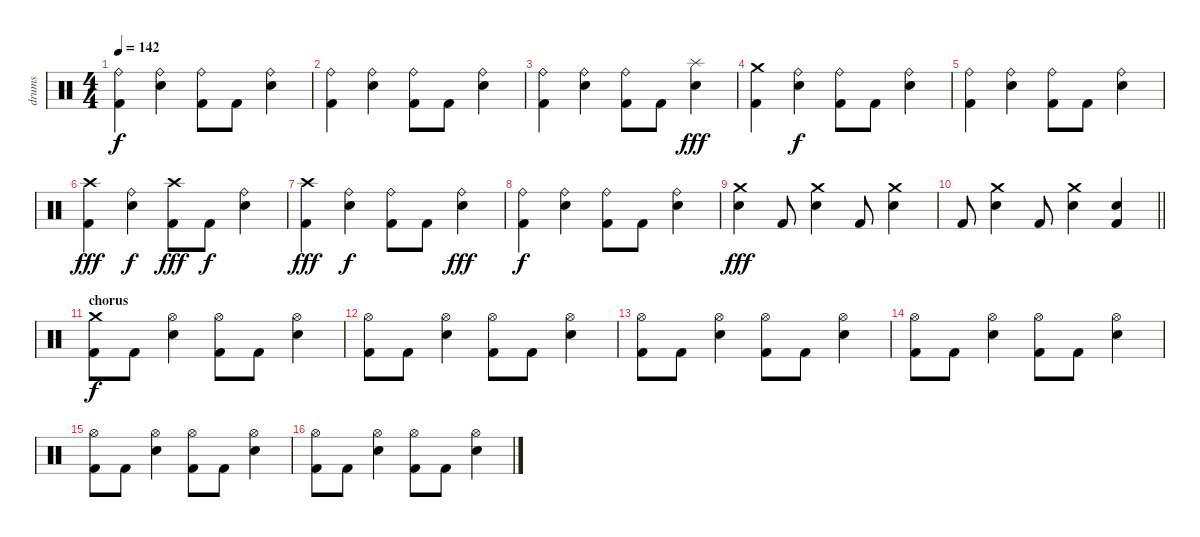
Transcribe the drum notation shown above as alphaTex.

\track ("drums" "drums") {instrument percussion}
\staff {score}
\articulation defaults
\ts (4 4)
\tempo 142
\clef neutral
\ks c
("Ride (bell)" "Kick (hit) 2").4{dy f} ("Ride (bell)" "Electric Snare (hit)").4 ("Ride (bell)" "Kick (hit) 2").8 "Kick (hit) 2".8 ("Ride (bell)" "Electric Snare (hit)").4 |
("Ride (bell)" "Kick (hit) 2").4 ("Ride (bell)" "Electric Snare (hit)").4 ("Ride (bell)" "Kick (hit) 2").8 "Kick (hit) 2".8 ("Ride (bell)" "Electric Snare (hit)").4 |
("Ride (bell)" "Kick (hit) 2").4 ("Ride (bell)" "Electric Snare (hit)").4 ("Ride (bell)" "Kick (hit) 2").8 "Kick (hit) 2".8 ("Splash (hit)" "Electric Snare (hit)").4{dy fff} |
("Crash medium (hit)" "Kick (hit) 2").4 ("Ride (bell)" "Electric Snare (hit)").4{dy f} ("Ride (bell)" "Kick (hit) 2").8 "Kick (hit) 2".8 ("Ride (bell)" "Electric Snare (hit)").4 |
("Ride (bell)" "Kick (hit) 2").4 ("Ride (bell)" "Electric Snare (hit)").4 ("Ride (bell)" "Kick (hit) 2").8 "Kick (hit) 2".8 ("Ride (bell)" "Electric Snare (hit)").4 |
("Crash high (hit)" "Kick (hit) 2").4{dy fff} ("Ride (bell)" "Electric Snare (hit)").4{dy f} ("Crash high (hit)" "Kick (hit) 2").8{dy fff} "Kick (hit) 2".8{dy f} ("Ride (bell)" "Electric Snare (hit)").4 |
("Crash high (hit)" "Kick (hit) 2").4{dy fff} ("Ride (bell)" "Electric Snare (hit)").4{dy f} ("Ride (bell)" "Kick (hit) 2").8 "Kick (hit) 2".8 ("Ride (bell)" "Electric Snare (hit)").4{dy fff} |
("Ride (bell)" "Kick (hit) 2").4{dy f} ("Ride (bell)" "Electric Snare (hit)").4 ("Ride (bell)" "Kick (hit) 2").8 "Kick (hit) 2".8 ("Ride (bell)" "Electric Snare (hit)").4 |
("Crash medium (hit)" "Electric Snare (hit)").4{dy fff} "Kick (hit) 2".8 ("Crash medium (hit)" "Electric Snare (hit)").4 "Kick (hit) 2".8 ("Crash medium (hit)" "Electric Snare (hit)").4 |
\barLineRight lightlight "Kick (hit) 2".8
("Crash medium (hit)" "Electric Snare (hit)").4 "Kick (hit) 2".8 ("Crash medium (hit)" "Electric Snare (hit)").4 ("Electric Snare (hit)" "Kick (hit) 2").4 |
\section ("" "chorus")
("Crash medium (hit)" "Kick (hit) 2").8{dy f volume 12} "Kick (hit) 2".8 ("Hi-Hat (open)" "Electric Snare (hit)").4 ("Hi-Hat (open)" "Kick (hit) 2").8 "Kick (hit) 2".8 ("Hi-Hat (open)" "Electric Snare (hit)").4 |
("Hi-Hat (open)" "Kick (hit) 2").8 "Kick (hit) 2".8 ("Hi-Hat (open)" "Electric Snare (hit)").4 ("Hi-Hat (open)" "Kick (hit) 2").8 "Kick (hit) 2".8 ("Hi-Hat (open)" "Electric Snare (hit)").4 |
("Hi-Hat (open)" "Kick (hit) 2").8 "Kick (hit) 2".8 ("Hi-Hat (open)" "Electric Snare (hit)").4 ("Hi-Hat (open)" "Kick (hit) 2").8 "Kick (hit) 2".8 ("Hi-Hat (open)" "Electric Snare (hit)").4 |
("Hi-Hat (open)" "Kick (hit) 2").8 "Kick (hit) 2".8 ("Hi-Hat (open)" "Electric Snare (hit)").4 ("Hi-Hat (open)" "Kick (hit) 2").8 "Kick (hit) 2".8 ("Hi-Hat (open)" "Electric Snare (hit)").4 |
("Hi-Hat (open)" "Kick (hit) 2").8 "Kick (hit) 2".8 ("Hi-Hat (open)" "Electric Snare (hit)").4 ("Hi-Hat (open)" "Kick (hit) 2").8 "Kick (hit) 2".8 ("Hi-Hat (open)" "Electric Snare (hit)").4 |
("Hi-Hat (open)" "Kick (hit) 2").8 "Kick (hit) 2".8 ("Hi-Hat (open)" "Electric Snare (hit)").4 ("Hi-Hat (open)" "Kick (hit) 2").8 "Kick (hit) 2".8 ("Hi-Hat (open)" "Electric Snare (hit)").4
